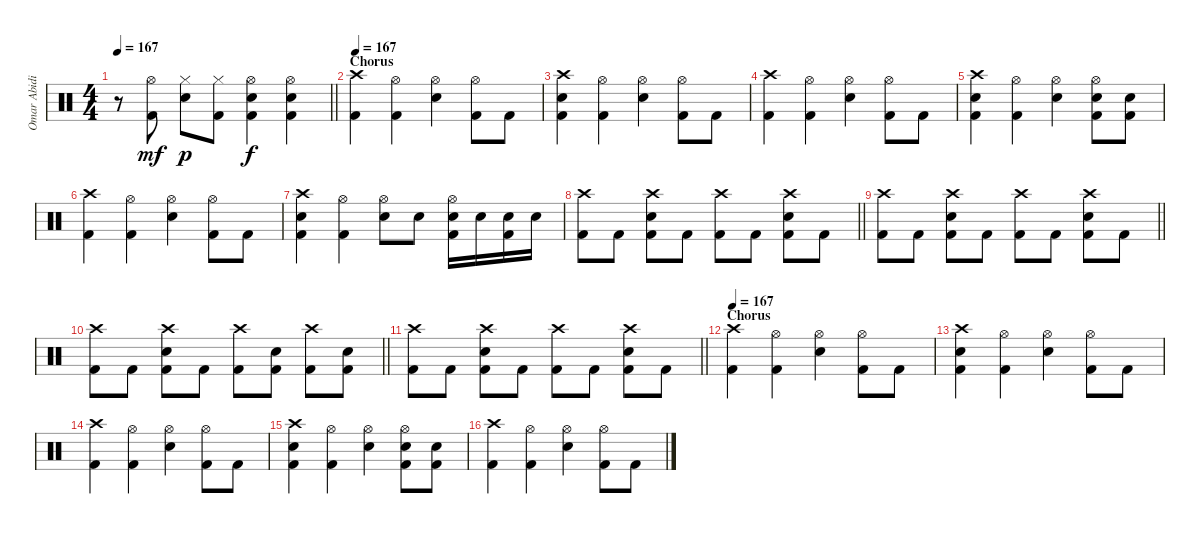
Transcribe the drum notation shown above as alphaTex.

\track ("Omar Abidi" "Omar Abidi") {instrument percussion}
\staff {score}
\articulation defaults
\ts (4 4)
\tempo 167
\clef neutral
\barLineRight lightlight
\ks c
r.8{dy mf} ("Hi-Hat (open)" "Kick (hit) 2").8 ("Hi-Hat (closed)" "Electric Snare (hit)").8{dy p} ("Hi-Hat (closed)" "Kick (hit) 2").8 ("Hi-Hat (open)" "Electric Snare (hit)" "Kick (hit) 2").4{dy f} ("Hi-Hat (open)" "Electric Snare (hit)" "Kick (hit) 2").4 |
\section ("" "Chorus")
\tempo 167
("Crash high (hit)" "Kick (hit) 2").4 ("Hi-Hat (open)" "Kick (hit) 2").4 ("Hi-Hat (open)" "Electric Snare (hit)").4 ("Hi-Hat (open)" "Kick (hit) 2").8 "Kick (hit) 2".8 |
("Crash high (hit)" "Electric Snare (hit)" "Kick (hit) 2").4 ("Hi-Hat (open)" "Kick (hit) 2").4 ("Hi-Hat (open)" "Electric Snare (hit)").4 ("Hi-Hat (open)" "Kick (hit) 2").8 "Kick (hit) 2".8 |
("Crash high (hit)" "Kick (hit) 2").4 ("Hi-Hat (open)" "Kick (hit) 2").4 ("Hi-Hat (open)" "Electric Snare (hit)").4 ("Hi-Hat (open)" "Kick (hit) 2").8 "Kick (hit) 2".8 |
("Crash high (hit)" "Electric Snare (hit)" "Kick (hit) 2").4 ("Hi-Hat (open)" "Kick (hit) 2").4 ("Hi-Hat (open)" "Electric Snare (hit)").4 ("Hi-Hat (open)" "Electric Snare (hit)" "Kick (hit) 2").8 ("Electric Snare (hit)" "Kick (hit) 2").8 |
("Crash high (hit)" "Kick (hit) 2").4 ("Hi-Hat (open)" "Kick (hit) 2").4 ("Hi-Hat (open)" "Electric Snare (hit)").4 ("Hi-Hat (open)" "Kick (hit) 2").8 "Kick (hit) 2".8 |
("Crash high (hit)" "Electric Snare (hit)" "Kick (hit) 2").4 ("Hi-Hat (open)" "Kick (hit) 2").4 ("Hi-Hat (open)" "Electric Snare (hit)").8 "Electric Snare (hit)".8 ("Hi-Hat (open)" "Electric Snare (hit)" "Kick (hit) 2").16 "Electric Snare (hit)".16 ("Electric Snare (hit)" "Kick (hit) 2").16 "Electric Snare (hit)".16 |
\barLineRight lightlight
("Crash high (hit)" "Kick (hit) 2").8 "Kick (hit) 2".8 ("Crash high (hit)" "Electric Snare (hit)" "Kick (hit) 2").8 "Kick (hit) 2".8 ("Crash high (hit)" "Kick (hit) 2").8 "Kick (hit) 2".8 ("Crash high (hit)" "Electric Snare (hit)" "Kick (hit) 2").8 "Kick (hit) 2".8 |
\barLineRight lightlight
("Crash high (hit)" "Kick (hit) 2").8 "Kick (hit) 2".8 ("Crash high (hit)" "Electric Snare (hit)" "Kick (hit) 2").8 "Kick (hit) 2".8 ("Crash high (hit)" "Kick (hit) 2").8 "Kick (hit) 2".8 ("Crash high (hit)" "Electric Snare (hit)" "Kick (hit) 2").8 "Kick (hit) 2".8 |
\barLineRight lightlight
("Crash high (hit)" "Kick (hit) 2").8 "Kick (hit) 2".8 ("Crash high (hit)" "Electric Snare (hit)" "Kick (hit) 2").8 "Kick (hit) 2".8 ("Crash high (hit)" "Kick (hit) 2").8 ("Electric Snare (hit)" "Kick (hit) 2").8 ("Crash high (hit)" "Kick (hit) 2").8 ("Electric Snare (hit)" "Kick (hit) 2").8 |
\barLineRight lightlight
("Crash high (hit)" "Kick (hit) 2").8 "Kick (hit) 2".8 ("Crash high (hit)" "Electric Snare (hit)" "Kick (hit) 2").8 "Kick (hit) 2".8 ("Crash high (hit)" "Kick (hit) 2").8 "Kick (hit) 2".8 ("Crash high (hit)" "Electric Snare (hit)" "Kick (hit) 2").8 "Kick (hit) 2".8 |
\section ("" "Chorus")
\tempo 167
("Crash high (hit)" "Kick (hit) 2").4 ("Hi-Hat (open)" "Kick (hit) 2").4 ("Hi-Hat (open)" "Electric Snare (hit)").4 ("Hi-Hat (open)" "Kick (hit) 2").8 "Kick (hit) 2".8 |
("Crash high (hit)" "Electric Snare (hit)" "Kick (hit) 2").4 ("Hi-Hat (open)" "Kick (hit) 2").4 ("Hi-Hat (open)" "Electric Snare (hit)").4 ("Hi-Hat (open)" "Kick (hit) 2").8 "Kick (hit) 2".8 |
("Crash high (hit)" "Kick (hit) 2").4 ("Hi-Hat (open)" "Kick (hit) 2").4 ("Hi-Hat (open)" "Electric Snare (hit)").4 ("Hi-Hat (open)" "Kick (hit) 2").8 "Kick (hit) 2".8 |
("Crash high (hit)" "Electric Snare (hit)" "Kick (hit) 2").4 ("Hi-Hat (open)" "Kick (hit) 2").4 ("Hi-Hat (open)" "Electric Snare (hit)").4 ("Hi-Hat (open)" "Electric Snare (hit)" "Kick (hit) 2").8 ("Electric Snare (hit)" "Kick (hit) 2").8 |
("Crash high (hit)" "Kick (hit) 2").4 ("Hi-Hat (open)" "Kick (hit) 2").4 ("Hi-Hat (open)" "Electric Snare (hit)").4 ("Hi-Hat (open)" "Kick (hit) 2").8 "Kick (hit) 2".8
